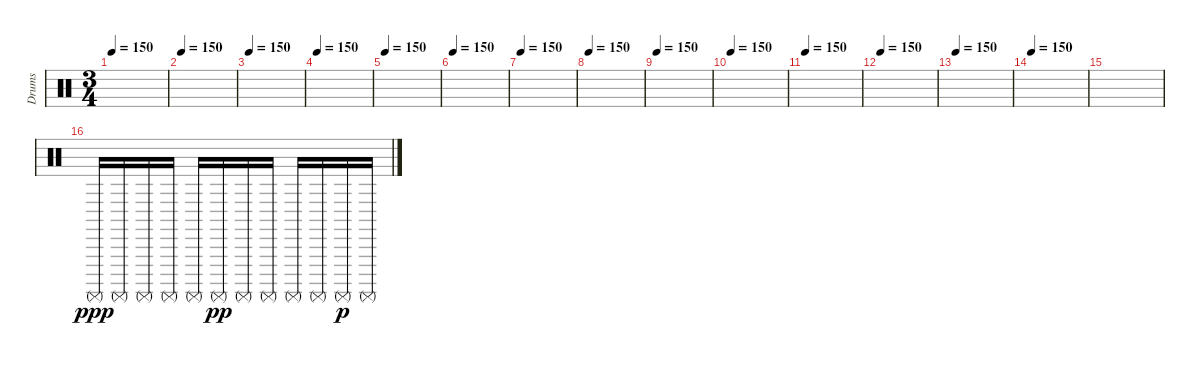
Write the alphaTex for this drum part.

\track ("Drums" "Drums") {instrument percussion}
\staff {score}
\articulation defaults
\ts (3 4)
\tempo 150
\clef neutral
\ks c
|
\tempo 150
|
\tempo 150
|
\tempo 150
|
\tempo 150
|
\tempo 150
|
\tempo 150
|
\tempo 150
|
\tempo 150
|
\tempo 150
|
\tempo 150
|
\tempo 150
|
\tempo 150
|
\tempo 150
|
|
"Surdo (mute)".16{dy ppp} "Surdo (mute)".16 "Surdo (mute)".16 "Surdo (mute)".16 "Surdo (mute)".16 "Surdo (mute)".16{dy pp} "Surdo (mute)".16 "Surdo (mute)".16 "Surdo (mute)".16 "Surdo (mute)".16 "Surdo (mute)".16{dy p} "Surdo (mute)".16
